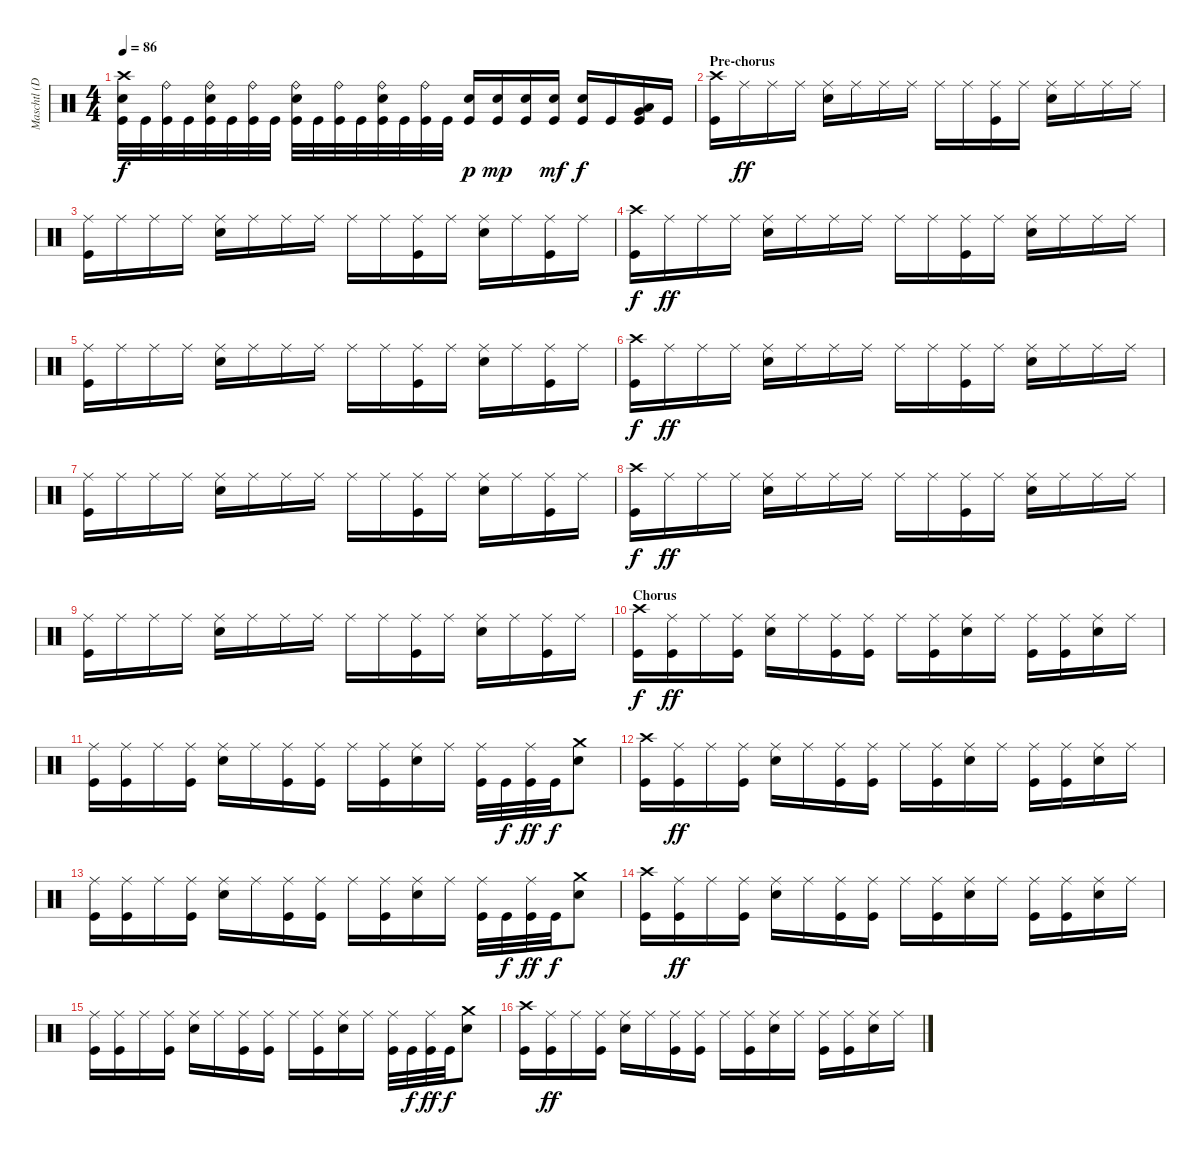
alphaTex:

\track ("Maschtl (Drums)" "Maschtl (D") {instrument percussion}
\staff {score}
\articulation defaults
\ts (4 4)
\tempo 86
\clef neutral
\ks c
("Crash high (hit)" "Electric Snare (hit)" "Kick (hit)").32{dy f} "Kick (hit)".32 ("Ride (bell)" "Kick (hit)").32 "Kick (hit)".32 ("Ride (bell)" "Electric Snare (hit)" "Kick (hit)").32 "Kick (hit)".32 ("Ride (bell)" "Kick (hit)").32 "Kick (hit)".32 ("Ride (bell)" "Electric Snare (hit)" "Kick (hit)").32 "Kick (hit)".32 ("Ride (bell)" "Kick (hit)").32 "Kick (hit)".32 ("Ride (bell)" "Electric Snare (hit)" "Kick (hit)").32 "Kick (hit)".32 ("Ride (bell)" "Kick (hit)").32 "Kick (hit)".32 ("Electric Snare (hit)" "Kick (hit)").16{dy p} ("Electric Snare (hit)" "Kick (hit)").16{dy mp} ("Electric Snare (hit)" "Kick (hit)").16 ("Electric Snare (hit)" "Kick (hit)").16{dy mf} ("Electric Snare (hit)" "Kick (hit)").16{dy f} "Kick (hit)".16 ("Very Low Tom (hit)" "Low Floor Tom (hit)" "Kick (hit)").16{bd 120} "Kick (hit)".16 |
\section ("" "Pre-chorus")
("Crash high (hit)" "Kick (hit)").16 "Ride (middle)".16{dy ff} "Ride (middle)".16 "Ride (middle)".16 ("Ride (middle)" "Electric Snare (hit)").16 "Ride (middle)".16 "Ride (middle)".16 "Ride (middle)".16 "Ride (middle)".16 "Ride (middle)".16 ("Ride (middle)" "Kick (hit)").16 "Ride (middle)".16 ("Ride (middle)" "Electric Snare (hit)").16 "Ride (middle)".16 "Ride (middle)".16 "Ride (middle)".16 |
("Ride (middle)" "Kick (hit)").16 "Ride (middle)".16 "Ride (middle)".16 "Ride (middle)".16 ("Ride (middle)" "Electric Snare (hit)").16 "Ride (middle)".16 "Ride (middle)".16 "Ride (middle)".16 "Ride (middle)".16 "Ride (middle)".16 ("Ride (middle)" "Kick (hit)").16 "Ride (middle)".16 ("Ride (middle)" "Electric Snare (hit)").16 "Ride (middle)".16 ("Ride (middle)" "Kick (hit)").16 "Ride (middle)".16 |
("Crash high (hit)" "Kick (hit)").16{dy f} "Ride (middle)".16{dy ff} "Ride (middle)".16 "Ride (middle)".16 ("Ride (middle)" "Electric Snare (hit)").16 "Ride (middle)".16 "Ride (middle)".16 "Ride (middle)".16 "Ride (middle)".16 "Ride (middle)".16 ("Ride (middle)" "Kick (hit)").16 "Ride (middle)".16 ("Ride (middle)" "Electric Snare (hit)").16 "Ride (middle)".16 "Ride (middle)".16 "Ride (middle)".16 |
("Ride (middle)" "Kick (hit)").16 "Ride (middle)".16 "Ride (middle)".16 "Ride (middle)".16 ("Ride (middle)" "Electric Snare (hit)").16 "Ride (middle)".16 "Ride (middle)".16 "Ride (middle)".16 "Ride (middle)".16 "Ride (middle)".16 ("Ride (middle)" "Kick (hit)").16 "Ride (middle)".16 ("Ride (middle)" "Electric Snare (hit)").16 "Ride (middle)".16 ("Ride (middle)" "Kick (hit)").16 "Ride (middle)".16 |
("Crash high (hit)" "Kick (hit)").16{dy f} "Ride (middle)".16{dy ff} "Ride (middle)".16 "Ride (middle)".16 ("Ride (middle)" "Electric Snare (hit)").16 "Ride (middle)".16 "Ride (middle)".16 "Ride (middle)".16 "Ride (middle)".16 "Ride (middle)".16 ("Ride (middle)" "Kick (hit)").16 "Ride (middle)".16 ("Ride (middle)" "Electric Snare (hit)").16 "Ride (middle)".16 "Ride (middle)".16 "Ride (middle)".16 |
("Ride (middle)" "Kick (hit)").16 "Ride (middle)".16 "Ride (middle)".16 "Ride (middle)".16 ("Ride (middle)" "Electric Snare (hit)").16 "Ride (middle)".16 "Ride (middle)".16 "Ride (middle)".16 "Ride (middle)".16 "Ride (middle)".16 ("Ride (middle)" "Kick (hit)").16 "Ride (middle)".16 ("Ride (middle)" "Electric Snare (hit)").16 "Ride (middle)".16 ("Ride (middle)" "Kick (hit)").16 "Ride (middle)".16 |
("Crash high (hit)" "Kick (hit)").16{dy f} "Ride (middle)".16{dy ff} "Ride (middle)".16 "Ride (middle)".16 ("Ride (middle)" "Electric Snare (hit)").16 "Ride (middle)".16 "Ride (middle)".16 "Ride (middle)".16 "Ride (middle)".16 "Ride (middle)".16 ("Ride (middle)" "Kick (hit)").16 "Ride (middle)".16 ("Ride (middle)" "Electric Snare (hit)").16 "Ride (middle)".16 "Ride (middle)".16 "Ride (middle)".16 |
("Ride (middle)" "Kick (hit)").16 "Ride (middle)".16 "Ride (middle)".16 "Ride (middle)".16 ("Ride (middle)" "Electric Snare (hit)").16 "Ride (middle)".16 "Ride (middle)".16 "Ride (middle)".16 "Ride (middle)".16 "Ride (middle)".16 ("Ride (middle)" "Kick (hit)").16 "Ride (middle)".16 ("Ride (middle)" "Electric Snare (hit)").16 "Ride (middle)".16 ("Ride (middle)" "Kick (hit)").16 "Ride (middle)".16 |
\section ("" "Chorus")
("Crash high (hit)" "Kick (hit)").16{dy f} ("Ride (middle)" "Kick (hit)").16{dy ff} "Ride (middle)".16 ("Ride (middle)" "Kick (hit)").16 ("Ride (middle)" "Electric Snare (hit)").16 "Ride (middle)".16 ("Ride (middle)" "Kick (hit)").16 ("Ride (middle)" "Kick (hit)").16 "Ride (middle)".16 ("Ride (middle)" "Kick (hit)").16 ("Ride (middle)" "Electric Snare (hit)").16 "Ride (middle)".16 ("Ride (middle)" "Kick (hit)").16 ("Ride (middle)" "Kick (hit)").16 ("Ride (middle)" "Electric Snare (hit)").16 "Ride (middle)".16 |
("Ride (middle)" "Kick (hit)").16 ("Ride (middle)" "Kick (hit)").16 "Ride (middle)".16 ("Ride (middle)" "Kick (hit)").16 ("Ride (middle)" "Electric Snare (hit)").16 "Ride (middle)".16 ("Ride (middle)" "Kick (hit)").16 ("Ride (middle)" "Kick (hit)").16 "Ride (middle)".16 ("Ride (middle)" "Kick (hit)").16 ("Ride (middle)" "Electric Snare (hit)").16 "Ride (middle)".16 ("Ride (middle)" "Kick (hit)").32 "Kick (hit)".32{dy f} ("Ride (middle)" "Kick (hit)").32{dy ff} "Kick (hit)".32{dy f} ("Crash medium (hit)" "Electric Snare (hit)").8 |
("Crash high (hit)" "Kick (hit)").16 ("Ride (middle)" "Kick (hit)").16{dy ff} "Ride (middle)".16 ("Ride (middle)" "Kick (hit)").16 ("Ride (middle)" "Electric Snare (hit)").16 "Ride (middle)".16 ("Ride (middle)" "Kick (hit)").16 ("Ride (middle)" "Kick (hit)").16 "Ride (middle)".16 ("Ride (middle)" "Kick (hit)").16 ("Ride (middle)" "Electric Snare (hit)").16 "Ride (middle)".16 ("Ride (middle)" "Kick (hit)").16 ("Ride (middle)" "Kick (hit)").16 ("Ride (middle)" "Electric Snare (hit)").16 "Ride (middle)".16 |
("Ride (middle)" "Kick (hit)").16 ("Ride (middle)" "Kick (hit)").16 "Ride (middle)".16 ("Ride (middle)" "Kick (hit)").16 ("Ride (middle)" "Electric Snare (hit)").16 "Ride (middle)".16 ("Ride (middle)" "Kick (hit)").16 ("Ride (middle)" "Kick (hit)").16 "Ride (middle)".16 ("Ride (middle)" "Kick (hit)").16 ("Ride (middle)" "Electric Snare (hit)").16 "Ride (middle)".16 ("Ride (middle)" "Kick (hit)").32 "Kick (hit)".32{dy f} ("Ride (middle)" "Kick (hit)").32{dy ff} "Kick (hit)".32{dy f} ("Crash medium (hit)" "Electric Snare (hit)").8 |
("Crash high (hit)" "Kick (hit)").16 ("Ride (middle)" "Kick (hit)").16{dy ff} "Ride (middle)".16 ("Ride (middle)" "Kick (hit)").16 ("Ride (middle)" "Electric Snare (hit)").16 "Ride (middle)".16 ("Ride (middle)" "Kick (hit)").16 ("Ride (middle)" "Kick (hit)").16 "Ride (middle)".16 ("Ride (middle)" "Kick (hit)").16 ("Ride (middle)" "Electric Snare (hit)").16 "Ride (middle)".16 ("Ride (middle)" "Kick (hit)").16 ("Ride (middle)" "Kick (hit)").16 ("Ride (middle)" "Electric Snare (hit)").16 "Ride (middle)".16 |
("Ride (middle)" "Kick (hit)").16 ("Ride (middle)" "Kick (hit)").16 "Ride (middle)".16 ("Ride (middle)" "Kick (hit)").16 ("Ride (middle)" "Electric Snare (hit)").16 "Ride (middle)".16 ("Ride (middle)" "Kick (hit)").16 ("Ride (middle)" "Kick (hit)").16 "Ride (middle)".16 ("Ride (middle)" "Kick (hit)").16 ("Ride (middle)" "Electric Snare (hit)").16 "Ride (middle)".16 ("Ride (middle)" "Kick (hit)").32 "Kick (hit)".32{dy f} ("Ride (middle)" "Kick (hit)").32{dy ff} "Kick (hit)".32{dy f} ("Crash medium (hit)" "Electric Snare (hit)").8 |
("Crash high (hit)" "Kick (hit)").16 ("Ride (middle)" "Kick (hit)").16{dy ff} "Ride (middle)".16 ("Ride (middle)" "Kick (hit)").16 ("Ride (middle)" "Electric Snare (hit)").16 "Ride (middle)".16 ("Ride (middle)" "Kick (hit)").16 ("Ride (middle)" "Kick (hit)").16 "Ride (middle)".16 ("Ride (middle)" "Kick (hit)").16 ("Ride (middle)" "Electric Snare (hit)").16 "Ride (middle)".16 ("Ride (middle)" "Kick (hit)").16 ("Ride (middle)" "Kick (hit)").16 ("Ride (middle)" "Electric Snare (hit)").16 "Ride (middle)".16
